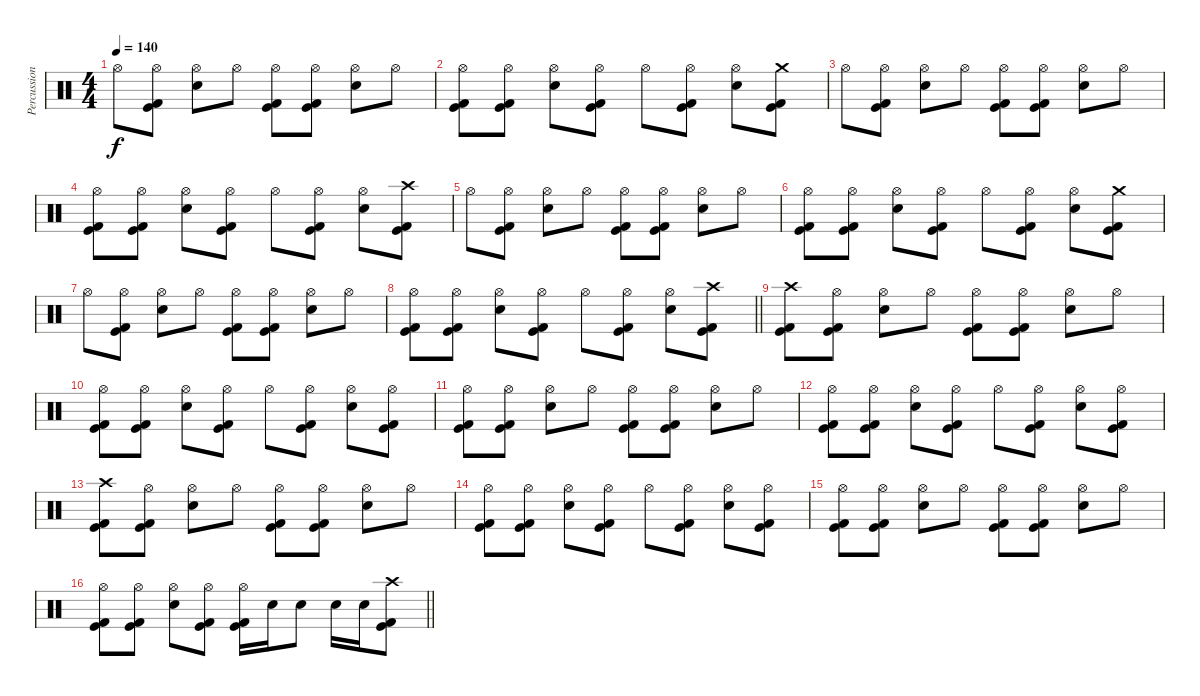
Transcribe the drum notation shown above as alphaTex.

\track ("Percussion" "Percussion") {instrument percussion}
\staff {score}
\articulation defaults
\ts (4 4)
\section ("" "")
\tempo 140
\clef neutral
\ks c "Hi-Hat (open)".8{dy f}
("Hi-Hat (open)" "Kick (hit)" "Kick (hit) 2").8 ("Hi-Hat (open)" "Electric Snare (hit)").8 "Hi-Hat (open)".8 ("Hi-Hat (open)" "Kick (hit)" "Kick (hit) 2").8 ("Hi-Hat (open)" "Kick (hit)" "Kick (hit) 2").8 ("Hi-Hat (open)" "Electric Snare (hit)").8 "Hi-Hat (open)".8 |
("Hi-Hat (open)" "Kick (hit)" "Kick (hit) 2").8 ("Hi-Hat (open)" "Kick (hit)" "Kick (hit) 2").8 ("Hi-Hat (open)" "Electric Snare (hit)").8 ("Hi-Hat (open)" "Kick (hit)" "Kick (hit) 2").8 "Hi-Hat (open)".8 ("Hi-Hat (open)" "Kick (hit)" "Kick (hit) 2").8 ("Hi-Hat (open)" "Electric Snare (hit)").8 ("Crash medium (hit)" "Kick (hit)" "Kick (hit) 2").8 |
"Hi-Hat (open)".8 ("Hi-Hat (open)" "Kick (hit)" "Kick (hit) 2").8 ("Hi-Hat (open)" "Electric Snare (hit)").8 "Hi-Hat (open)".8 ("Hi-Hat (open)" "Kick (hit)" "Kick (hit) 2").8 ("Hi-Hat (open)" "Kick (hit)" "Kick (hit) 2").8 ("Hi-Hat (open)" "Electric Snare (hit)").8 "Hi-Hat (open)".8 |
("Hi-Hat (open)" "Kick (hit)" "Kick (hit) 2").8 ("Hi-Hat (open)" "Kick (hit)" "Kick (hit) 2").8 ("Hi-Hat (open)" "Electric Snare (hit)").8 ("Hi-Hat (open)" "Kick (hit)" "Kick (hit) 2").8 "Hi-Hat (open)".8 ("Hi-Hat (open)" "Kick (hit)" "Kick (hit) 2").8 ("Hi-Hat (open)" "Electric Snare (hit)").8 ("Crash high (hit)" "Kick (hit)" "Kick (hit) 2").8 |
"Hi-Hat (open)".8 ("Hi-Hat (open)" "Kick (hit)" "Kick (hit) 2").8 ("Hi-Hat (open)" "Electric Snare (hit)").8 "Hi-Hat (open)".8 ("Hi-Hat (open)" "Kick (hit)" "Kick (hit) 2").8 ("Hi-Hat (open)" "Kick (hit)" "Kick (hit) 2").8 ("Hi-Hat (open)" "Electric Snare (hit)").8 "Hi-Hat (open)".8 |
("Hi-Hat (open)" "Kick (hit)" "Kick (hit) 2").8 ("Hi-Hat (open)" "Kick (hit)" "Kick (hit) 2").8 ("Hi-Hat (open)" "Electric Snare (hit)").8 ("Hi-Hat (open)" "Kick (hit)" "Kick (hit) 2").8 "Hi-Hat (open)".8 ("Hi-Hat (open)" "Kick (hit)" "Kick (hit) 2").8 ("Hi-Hat (open)" "Electric Snare (hit)").8 ("Crash medium (hit)" "Kick (hit)" "Kick (hit) 2").8 |
"Hi-Hat (open)".8 ("Hi-Hat (open)" "Kick (hit)" "Kick (hit) 2").8 ("Hi-Hat (open)" "Electric Snare (hit)").8 "Hi-Hat (open)".8 ("Hi-Hat (open)" "Kick (hit)" "Kick (hit) 2").8 ("Hi-Hat (open)" "Kick (hit)" "Kick (hit) 2").8 ("Hi-Hat (open)" "Electric Snare (hit)").8 "Hi-Hat (open)".8 |
\barLineRight lightlight
("Hi-Hat (open)" "Kick (hit)" "Kick (hit) 2").8 ("Hi-Hat (open)" "Kick (hit)" "Kick (hit) 2").8 ("Hi-Hat (open)" "Electric Snare (hit)").8 ("Hi-Hat (open)" "Kick (hit)" "Kick (hit) 2").8 "Hi-Hat (open)".8 ("Hi-Hat (open)" "Kick (hit)" "Kick (hit) 2").8 ("Hi-Hat (open)" "Electric Snare (hit)").8 ("Crash high (hit)" "Kick (hit)" "Kick (hit) 2").8 |
\section ("" "")
("Crash high (hit)" "Kick (hit)" "Kick (hit) 2").8 ("Hi-Hat (open)" "Kick (hit)" "Kick (hit) 2").8 ("Hi-Hat (open)" "Electric Snare (hit)").8 "Hi-Hat (open)".8 ("Hi-Hat (open)" "Kick (hit)" "Kick (hit) 2").8 ("Hi-Hat (open)" "Kick (hit)" "Kick (hit) 2").8 ("Hi-Hat (open)" "Electric Snare (hit)").8 "Hi-Hat (open)".8 |
("Hi-Hat (open)" "Kick (hit)" "Kick (hit) 2").8 ("Hi-Hat (open)" "Kick (hit)" "Kick (hit) 2").8 ("Hi-Hat (open)" "Electric Snare (hit)").8 ("Hi-Hat (open)" "Kick (hit)" "Kick (hit) 2").8 "Hi-Hat (open)".8 ("Hi-Hat (open)" "Kick (hit)" "Kick (hit) 2").8 ("Hi-Hat (open)" "Electric Snare (hit)").8 ("Hi-Hat (open)" "Kick (hit)" "Kick (hit) 2").8 |
("Hi-Hat (open)" "Kick (hit)" "Kick (hit) 2").8 ("Hi-Hat (open)" "Kick (hit)" "Kick (hit) 2").8 ("Hi-Hat (open)" "Electric Snare (hit)").8 "Hi-Hat (open)".8 ("Hi-Hat (open)" "Kick (hit)" "Kick (hit) 2").8 ("Hi-Hat (open)" "Kick (hit)" "Kick (hit) 2").8 ("Hi-Hat (open)" "Electric Snare (hit)").8 "Hi-Hat (open)".8 |
("Hi-Hat (open)" "Kick (hit)" "Kick (hit) 2").8 ("Hi-Hat (open)" "Kick (hit)" "Kick (hit) 2").8 ("Hi-Hat (open)" "Electric Snare (hit)").8 ("Hi-Hat (open)" "Kick (hit)" "Kick (hit) 2").8 "Hi-Hat (open)".8 ("Hi-Hat (open)" "Kick (hit)" "Kick (hit) 2").8 ("Hi-Hat (open)" "Electric Snare (hit)").8 ("Hi-Hat (open)" "Kick (hit)" "Kick (hit) 2").8 |
("Crash high (hit)" "Kick (hit)" "Kick (hit) 2").8 ("Hi-Hat (open)" "Kick (hit)" "Kick (hit) 2").8 ("Hi-Hat (open)" "Electric Snare (hit)").8 "Hi-Hat (open)".8 ("Hi-Hat (open)" "Kick (hit)" "Kick (hit) 2").8 ("Hi-Hat (open)" "Kick (hit)" "Kick (hit) 2").8 ("Hi-Hat (open)" "Electric Snare (hit)").8 "Hi-Hat (open)".8 |
("Hi-Hat (open)" "Kick (hit)" "Kick (hit) 2").8 ("Hi-Hat (open)" "Kick (hit)" "Kick (hit) 2").8 ("Hi-Hat (open)" "Electric Snare (hit)").8 ("Hi-Hat (open)" "Kick (hit)" "Kick (hit) 2").8 "Hi-Hat (open)".8 ("Hi-Hat (open)" "Kick (hit)" "Kick (hit) 2").8 ("Hi-Hat (open)" "Electric Snare (hit)").8 ("Hi-Hat (open)" "Kick (hit)" "Kick (hit) 2").8 |
("Hi-Hat (open)" "Kick (hit)" "Kick (hit) 2").8 ("Hi-Hat (open)" "Kick (hit)" "Kick (hit) 2").8 ("Hi-Hat (open)" "Electric Snare (hit)").8 "Hi-Hat (open)".8 ("Hi-Hat (open)" "Kick (hit)" "Kick (hit) 2").8 ("Hi-Hat (open)" "Kick (hit)" "Kick (hit) 2").8 ("Hi-Hat (open)" "Electric Snare (hit)").8 "Hi-Hat (open)".8 |
\barLineRight lightlight
("Hi-Hat (open)" "Kick (hit)" "Kick (hit) 2").8 ("Hi-Hat (open)" "Kick (hit)" "Kick (hit) 2").8 ("Hi-Hat (open)" "Electric Snare (hit)").8 ("Hi-Hat (open)" "Kick (hit)" "Kick (hit) 2").8 ("Hi-Hat (open)" "Kick (hit)" "Kick (hit) 2").16 "Electric Snare (hit)".16 "Electric Snare (hit)".8 "Electric Snare (hit)".16 "Electric Snare (hit)".16 ("Crash high (hit)" "Kick (hit)" "Kick (hit) 2").8
